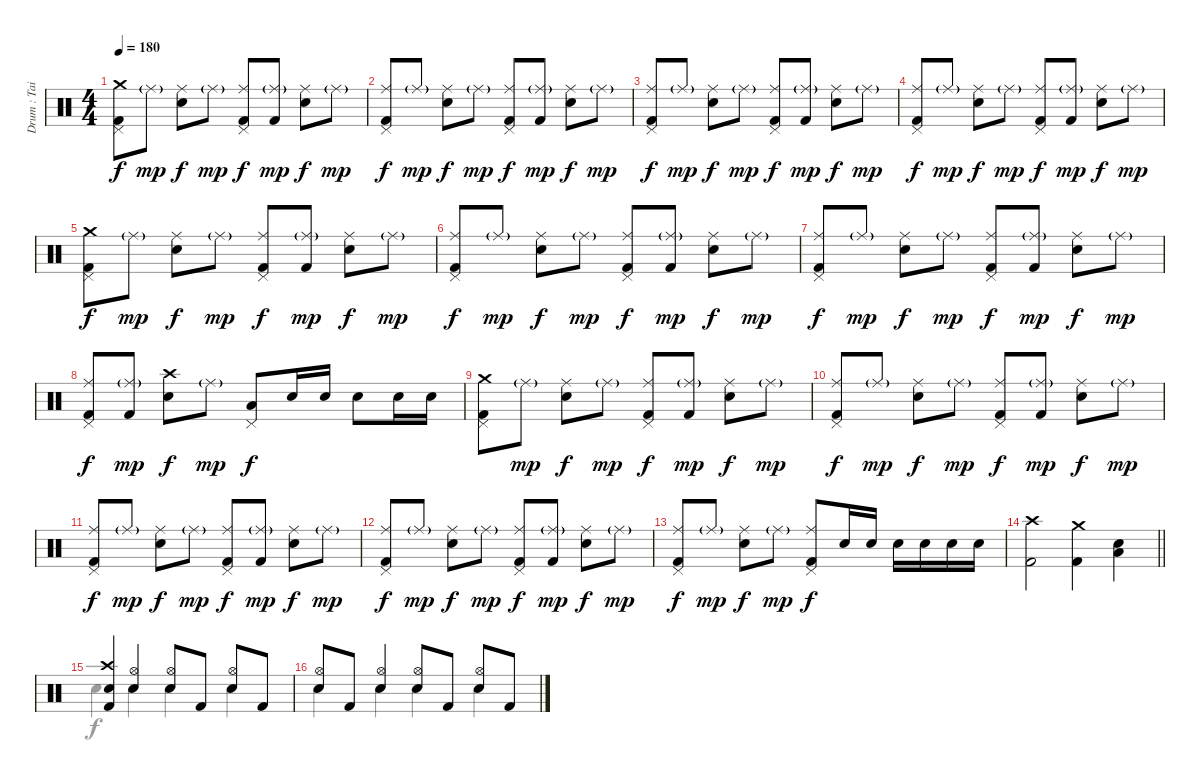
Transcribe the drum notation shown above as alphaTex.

\track ("Drum : Tainaka Ritsu - Chan" "Drum : Tai") {instrument percussion}
\staff {score}
\articulation defaults
\voice
\ts (4 4)
\tempo 180
\clef neutral
\ks c
("Crash medium (hit)" "Pedal Hi-Hat (hit)" "Kick (hit) 2").8{dy f} "Ride (middle)"{g}.8{dy mp} ("Ride (middle)" "Electric Snare (hit)").8{dy f} "Ride (middle)"{g}.8{dy mp} ("Ride (middle)" "Pedal Hi-Hat (hit)" "Kick (hit) 2").8{dy f} ("Ride (middle)"{g} "Kick (hit) 2").8{dy mp} ("Ride (middle)" "Electric Snare (hit)").8{dy f} "Ride (middle)"{g}.8{dy mp} |
("Ride (middle)" "Pedal Hi-Hat (hit)" "Kick (hit) 2").8{dy f} "Ride (middle)"{g}.8{dy mp} ("Ride (middle)" "Electric Snare (hit)").8{dy f} "Ride (middle)"{g}.8{dy mp} ("Ride (middle)" "Pedal Hi-Hat (hit)" "Kick (hit) 2").8{dy f} ("Ride (middle)"{g} "Kick (hit) 2").8{dy mp} ("Ride (middle)" "Electric Snare (hit)").8{dy f} "Ride (middle)"{g}.8{dy mp} |
("Ride (middle)" "Pedal Hi-Hat (hit)" "Kick (hit) 2").8{dy f} "Ride (middle)"{g}.8{dy mp} ("Ride (middle)" "Electric Snare (hit)").8{dy f} "Ride (middle)"{g}.8{dy mp} ("Ride (middle)" "Pedal Hi-Hat (hit)" "Kick (hit) 2").8{dy f} ("Ride (middle)"{g} "Kick (hit) 2").8{dy mp} ("Ride (middle)" "Electric Snare (hit)").8{dy f} "Ride (middle)"{g}.8{dy mp} |
("Ride (middle)" "Pedal Hi-Hat (hit)" "Kick (hit) 2").8{dy f} "Ride (middle)"{g}.8{dy mp} ("Ride (middle)" "Electric Snare (hit)").8{dy f} "Ride (middle)"{g}.8{dy mp} ("Ride (middle)" "Pedal Hi-Hat (hit)" "Kick (hit) 2").8{dy f} ("Ride (middle)"{g} "Kick (hit) 2").8{dy mp} ("Ride (middle)" "Electric Snare (hit)").8{dy f} "Ride (middle)"{g}.8{dy mp} |
("Crash medium (hit)" "Pedal Hi-Hat (hit)" "Kick (hit) 2").8{dy f} "Ride (middle)"{g}.8{dy mp} ("Ride (middle)" "Electric Snare (hit)").8{dy f} "Ride (middle)"{g}.8{dy mp} ("Ride (middle)" "Pedal Hi-Hat (hit)" "Kick (hit) 2").8{dy f} ("Ride (middle)"{g} "Kick (hit) 2").8{dy mp} ("Ride (middle)" "Electric Snare (hit)").8{dy f} "Ride (middle)"{g}.8{dy mp} |
("Ride (middle)" "Pedal Hi-Hat (hit)" "Kick (hit) 2").8{dy f} "Ride (middle)"{g}.8{dy mp} ("Ride (middle)" "Electric Snare (hit)").8{dy f} "Ride (middle)"{g}.8{dy mp} ("Ride (middle)" "Pedal Hi-Hat (hit)" "Kick (hit) 2").8{dy f} ("Ride (middle)"{g} "Kick (hit) 2").8{dy mp} ("Ride (middle)" "Electric Snare (hit)").8{dy f} "Ride (middle)"{g}.8{dy mp} |
("Ride (middle)" "Pedal Hi-Hat (hit)" "Kick (hit) 2").8{dy f} "Ride (middle)"{g}.8{dy mp} ("Ride (middle)" "Electric Snare (hit)").8{dy f} "Ride (middle)"{g}.8{dy mp} ("Ride (middle)" "Pedal Hi-Hat (hit)" "Kick (hit) 2").8{dy f} ("Ride (middle)"{g} "Kick (hit) 2").8{dy mp} ("Ride (middle)" "Electric Snare (hit)").8{dy f} "Ride (middle)"{g}.8{dy mp} |
("Ride (middle)" "Pedal Hi-Hat (hit)" "Kick (hit) 2").8{dy f} ("Ride (middle)"{g} "Kick (hit) 2").8{dy mp} ("Crash high (hit)" "Electric Snare (hit)").8{dy f} "Ride (middle)"{g}.8{dy mp} ("Pedal Hi-Hat (hit)" "Low Tom (hit)").8{dy f} "Electric Snare (hit)".16 "Electric Snare (hit)".16 "Electric Snare (hit)".8 "Electric Snare (hit)".16 "Electric Snare (hit)".16 |
("Crash medium (hit)" "Pedal Hi-Hat (hit)" "Kick (hit) 2").8 "Ride (middle)"{g}.8{dy mp} ("Ride (middle)" "Electric Snare (hit)").8{dy f} "Ride (middle)"{g}.8{dy mp} ("Ride (middle)" "Pedal Hi-Hat (hit)" "Kick (hit) 2").8{dy f} ("Ride (middle)"{g} "Kick (hit) 2").8{dy mp} ("Ride (middle)" "Electric Snare (hit)").8{dy f} "Ride (middle)"{g}.8{dy mp} |
("Ride (middle)" "Pedal Hi-Hat (hit)" "Kick (hit) 2").8{dy f} "Ride (middle)"{g}.8{dy mp} ("Ride (middle)" "Electric Snare (hit)").8{dy f} "Ride (middle)"{g}.8{dy mp} ("Ride (middle)" "Pedal Hi-Hat (hit)" "Kick (hit) 2").8{dy f} ("Ride (middle)"{g} "Kick (hit) 2").8{dy mp} ("Ride (middle)" "Electric Snare (hit)").8{dy f} "Ride (middle)"{g}.8{dy mp} |
("Ride (middle)" "Pedal Hi-Hat (hit)" "Kick (hit) 2").8{dy f} "Ride (middle)"{g}.8{dy mp} ("Ride (middle)" "Electric Snare (hit)").8{dy f} "Ride (middle)"{g}.8{dy mp} ("Ride (middle)" "Pedal Hi-Hat (hit)" "Kick (hit) 2").8{dy f} ("Ride (middle)"{g} "Kick (hit) 2").8{dy mp} ("Ride (middle)" "Electric Snare (hit)").8{dy f} "Ride (middle)"{g}.8{dy mp} |
("Ride (middle)" "Pedal Hi-Hat (hit)" "Kick (hit) 2").8{dy f} "Ride (middle)"{g}.8{dy mp} ("Ride (middle)" "Electric Snare (hit)").8{dy f} "Ride (middle)"{g}.8{dy mp} ("Ride (middle)" "Pedal Hi-Hat (hit)" "Kick (hit) 2").8{dy f} ("Ride (middle)"{g} "Kick (hit) 2").8{dy mp} ("Ride (middle)" "Electric Snare (hit)").8{dy f} "Ride (middle)"{g}.8{dy mp} |
("Ride (middle)" "Pedal Hi-Hat (hit)" "Kick (hit) 2").8{dy f} "Ride (middle)"{g}.8{dy mp} ("Ride (middle)" "Electric Snare (hit)").8{dy f} "Ride (middle)"{g}.8{dy mp} ("Ride (middle)" "Pedal Hi-Hat (hit)" "Kick (hit) 2").8{dy f} "Electric Snare (hit)".16 "Electric Snare (hit)".16 "Electric Snare (hit)".16 "Electric Snare (hit)".16 "Electric Snare (hit)".16 "Electric Snare (hit)".16 |
\barLineRight lightlight
("Crash high (hit)" "Kick (hit) 2").2 ("Crash medium (hit)" "Kick (hit) 2").4 ("Electric Snare (hit)" "Low Floor Tom (hit)").4 |
("Crash high (hit)" "Electric Snare (hit)" "Kick (hit) 2").4 ("Hi-Hat (open)" "Electric Snare (hit)").4 ("Hi-Hat (open)" "Electric Snare (hit)").8 "Kick (hit) 2".8 ("Hi-Hat (open)" "Electric Snare (hit)").8 "Kick (hit) 2".8 |
("Hi-Hat (open)" "Electric Snare (hit)").8 "Kick (hit) 2".8 ("Hi-Hat (open)" "Electric Snare (hit)").4 ("Hi-Hat (open)" "Electric Snare (hit)").8 "Kick (hit) 2".8 ("Hi-Hat (open)" "Electric Snare (hit)").8 "Kick (hit) 2".8
\voice
\clef neutral
\ottava regular
\simile none
\ks c
|
|
|
|
|
|
|
|
|
|
|
|
|
\barLineRight lightlight
|
"Hand Clap (hit)".4 "Hand Clap (hit)".4 "Hand Clap (hit)".4 "Hand Clap (hit)".4 |
"Hand Clap (hit)".4 "Hand Clap (hit)".4 "Hand Clap (hit)".4 "Hand Clap (hit)".4
